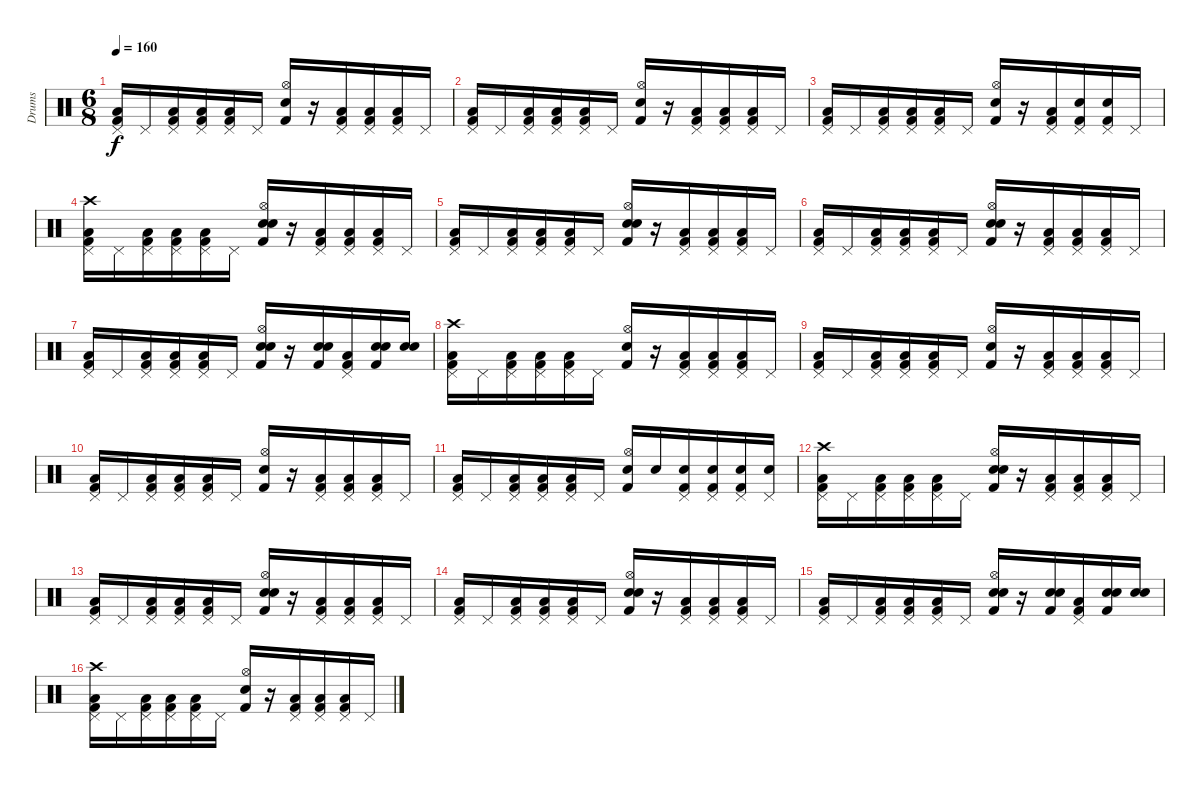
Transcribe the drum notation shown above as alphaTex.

\track ("Drums" "Drums") {instrument percussion}
\staff {score}
\articulation defaults
\ts (6 8)
\tempo 160
\clef neutral
\ks c
("Pedal Hi-Hat (hit)" "Low Floor Tom (hit)" "Kick (hit) 2").16{dy f} "Pedal Hi-Hat (hit)".16 ("Pedal Hi-Hat (hit)" "Low Floor Tom (hit)" "Kick (hit) 2").16 ("Pedal Hi-Hat (hit)" "Low Floor Tom (hit)" "Kick (hit) 2").16 ("Pedal Hi-Hat (hit)" "Low Floor Tom (hit)" "Kick (hit) 2").16 "Pedal Hi-Hat (hit)".16 ("Hi-Hat (open)" "Snare (hit) 2" "Kick (hit) 2").16 r.16 ("Pedal Hi-Hat (hit)" "Low Floor Tom (hit)" "Kick (hit) 2").16 ("Pedal Hi-Hat (hit)" "Low Floor Tom (hit)" "Kick (hit) 2").16 ("Pedal Hi-Hat (hit)" "Low Floor Tom (hit)" "Kick (hit) 2").16 "Pedal Hi-Hat (hit)".16 |
("Pedal Hi-Hat (hit)" "Low Floor Tom (hit)" "Kick (hit) 2").16 "Pedal Hi-Hat (hit)".16 ("Pedal Hi-Hat (hit)" "Low Floor Tom (hit)" "Kick (hit) 2").16 ("Pedal Hi-Hat (hit)" "Low Floor Tom (hit)" "Kick (hit) 2").16 ("Pedal Hi-Hat (hit)" "Low Floor Tom (hit)" "Kick (hit) 2").16 "Pedal Hi-Hat (hit)".16 ("Hi-Hat (open)" "Snare (hit) 2" "Kick (hit) 2").16 r.16 ("Pedal Hi-Hat (hit)" "Low Floor Tom (hit)" "Kick (hit) 2").16 ("Pedal Hi-Hat (hit)" "Low Floor Tom (hit)" "Kick (hit) 2").16 ("Pedal Hi-Hat (hit)" "Low Floor Tom (hit)" "Kick (hit) 2").16 "Pedal Hi-Hat (hit)".16 |
("Pedal Hi-Hat (hit)" "Low Floor Tom (hit)" "Kick (hit) 2").16 "Pedal Hi-Hat (hit)".16 ("Pedal Hi-Hat (hit)" "Low Floor Tom (hit)" "Kick (hit) 2").16 ("Pedal Hi-Hat (hit)" "Low Floor Tom (hit)" "Kick (hit) 2").16 ("Pedal Hi-Hat (hit)" "Low Floor Tom (hit)" "Kick (hit) 2").16 "Pedal Hi-Hat (hit)".16 ("Hi-Hat (open)" "Snare (hit) 2" "Kick (hit) 2").16 r.16 ("Pedal Hi-Hat (hit)" "Low Floor Tom (hit)" "Kick (hit) 2").16 ("Pedal Hi-Hat (hit)" "Electric Snare (hit)" "Kick (hit) 2").16 ("Pedal Hi-Hat (hit)" "Electric Snare (hit)" "Kick (hit) 2").16 "Pedal Hi-Hat (hit)".16 |
("Crash high (hit)" "Pedal Hi-Hat (hit)" "Low Floor Tom (hit)" "Kick (hit) 2").16 "Pedal Hi-Hat (hit)".16 ("Pedal Hi-Hat (hit)" "Low Floor Tom (hit)" "Kick (hit) 2").16 ("Pedal Hi-Hat (hit)" "Low Floor Tom (hit)" "Kick (hit) 2").16 ("Pedal Hi-Hat (hit)" "Low Floor Tom (hit)" "Kick (hit) 2").16 "Pedal Hi-Hat (hit)".16 ("Hi-Hat (open)" "Electric Snare (hit)" "Electric Snare (hit)" "Kick (hit) 2").16 r.16 ("Pedal Hi-Hat (hit)" "Low Floor Tom (hit)" "Kick (hit) 2").16 ("Pedal Hi-Hat (hit)" "Low Floor Tom (hit)" "Kick (hit) 2").16 ("Pedal Hi-Hat (hit)" "Low Floor Tom (hit)" "Kick (hit) 2").16 "Pedal Hi-Hat (hit)".16 |
("Pedal Hi-Hat (hit)" "Low Floor Tom (hit)" "Kick (hit) 2").16 "Pedal Hi-Hat (hit)".16 ("Pedal Hi-Hat (hit)" "Low Floor Tom (hit)" "Kick (hit) 2").16 ("Pedal Hi-Hat (hit)" "Low Floor Tom (hit)" "Kick (hit) 2").16 ("Pedal Hi-Hat (hit)" "Low Floor Tom (hit)" "Kick (hit) 2").16 "Pedal Hi-Hat (hit)".16 ("Hi-Hat (open)" "Electric Snare (hit)" "Electric Snare (hit)" "Kick (hit) 2").16 r.16 ("Pedal Hi-Hat (hit)" "Low Floor Tom (hit)" "Kick (hit) 2").16 ("Pedal Hi-Hat (hit)" "Low Floor Tom (hit)" "Kick (hit) 2").16 ("Pedal Hi-Hat (hit)" "Low Floor Tom (hit)" "Kick (hit) 2").16 "Pedal Hi-Hat (hit)".16 |
("Pedal Hi-Hat (hit)" "Low Floor Tom (hit)" "Kick (hit) 2").16 "Pedal Hi-Hat (hit)".16 ("Pedal Hi-Hat (hit)" "Low Floor Tom (hit)" "Kick (hit) 2").16 ("Pedal Hi-Hat (hit)" "Low Floor Tom (hit)" "Kick (hit) 2").16 ("Pedal Hi-Hat (hit)" "Low Floor Tom (hit)" "Kick (hit) 2").16 "Pedal Hi-Hat (hit)".16 ("Hi-Hat (open)" "Electric Snare (hit)" "Electric Snare (hit)" "Kick (hit) 2").16 r.16 ("Pedal Hi-Hat (hit)" "Low Floor Tom (hit)" "Kick (hit) 2").16 ("Pedal Hi-Hat (hit)" "Low Floor Tom (hit)" "Kick (hit) 2").16 ("Pedal Hi-Hat (hit)" "Low Floor Tom (hit)" "Kick (hit) 2").16 "Pedal Hi-Hat (hit)".16 |
("Pedal Hi-Hat (hit)" "Low Floor Tom (hit)" "Kick (hit) 2").16 "Pedal Hi-Hat (hit)".16 ("Pedal Hi-Hat (hit)" "Low Floor Tom (hit)" "Kick (hit) 2").16 ("Pedal Hi-Hat (hit)" "Low Floor Tom (hit)" "Kick (hit) 2").16 ("Pedal Hi-Hat (hit)" "Low Floor Tom (hit)" "Kick (hit) 2").16 "Pedal Hi-Hat (hit)".16 ("Hi-Hat (open)" "Electric Snare (hit)" "Electric Snare (hit)" "Kick (hit) 2").16 r.16 ("Electric Snare (hit)" "Electric Snare (hit)" "Kick (hit) 2").16 ("Pedal Hi-Hat (hit)" "Low Floor Tom (hit)" "Kick (hit) 2").16 ("Electric Snare (hit)" "Electric Snare (hit)" "Kick (hit) 2").16 ("Electric Snare (hit)" "Electric Snare (hit)").16 |
("Crash high (hit)" "Pedal Hi-Hat (hit)" "Low Floor Tom (hit)" "Kick (hit) 2").16 "Pedal Hi-Hat (hit)".16 ("Pedal Hi-Hat (hit)" "Low Floor Tom (hit)" "Kick (hit) 2").16 ("Pedal Hi-Hat (hit)" "Low Floor Tom (hit)" "Kick (hit) 2").16 ("Pedal Hi-Hat (hit)" "Low Floor Tom (hit)" "Kick (hit) 2").16 "Pedal Hi-Hat (hit)".16 ("Hi-Hat (open)" "Snare (hit) 2" "Kick (hit) 2").16 r.16 ("Pedal Hi-Hat (hit)" "Low Floor Tom (hit)" "Kick (hit) 2").16 ("Pedal Hi-Hat (hit)" "Low Floor Tom (hit)" "Kick (hit) 2").16 ("Pedal Hi-Hat (hit)" "Low Floor Tom (hit)" "Kick (hit) 2").16 "Pedal Hi-Hat (hit)".16 |
("Pedal Hi-Hat (hit)" "Low Floor Tom (hit)" "Kick (hit) 2").16 "Pedal Hi-Hat (hit)".16 ("Pedal Hi-Hat (hit)" "Low Floor Tom (hit)" "Kick (hit) 2").16 ("Pedal Hi-Hat (hit)" "Low Floor Tom (hit)" "Kick (hit) 2").16 ("Pedal Hi-Hat (hit)" "Low Floor Tom (hit)" "Kick (hit) 2").16 "Pedal Hi-Hat (hit)".16 ("Hi-Hat (open)" "Snare (hit) 2" "Kick (hit) 2").16 r.16 ("Pedal Hi-Hat (hit)" "Low Floor Tom (hit)" "Kick (hit) 2").16 ("Pedal Hi-Hat (hit)" "Low Floor Tom (hit)" "Kick (hit) 2").16 ("Pedal Hi-Hat (hit)" "Low Floor Tom (hit)" "Kick (hit) 2").16 "Pedal Hi-Hat (hit)".16 |
("Pedal Hi-Hat (hit)" "Low Floor Tom (hit)" "Kick (hit) 2").16 "Pedal Hi-Hat (hit)".16 ("Pedal Hi-Hat (hit)" "Low Floor Tom (hit)" "Kick (hit) 2").16 ("Pedal Hi-Hat (hit)" "Low Floor Tom (hit)" "Kick (hit) 2").16 ("Pedal Hi-Hat (hit)" "Low Floor Tom (hit)" "Kick (hit) 2").16 "Pedal Hi-Hat (hit)".16 ("Hi-Hat (open)" "Snare (hit) 2" "Kick (hit) 2").16 r.16 ("Pedal Hi-Hat (hit)" "Low Floor Tom (hit)" "Kick (hit) 2").16 ("Pedal Hi-Hat (hit)" "Low Floor Tom (hit)" "Kick (hit) 2").16 ("Pedal Hi-Hat (hit)" "Low Floor Tom (hit)" "Kick (hit) 2").16 "Pedal Hi-Hat (hit)".16 |
("Pedal Hi-Hat (hit)" "Low Floor Tom (hit)" "Kick (hit) 2").16 "Pedal Hi-Hat (hit)".16 ("Pedal Hi-Hat (hit)" "Low Floor Tom (hit)" "Kick (hit) 2").16 ("Pedal Hi-Hat (hit)" "Low Floor Tom (hit)" "Kick (hit) 2").16 ("Pedal Hi-Hat (hit)" "Low Floor Tom (hit)" "Kick (hit) 2").16 "Pedal Hi-Hat (hit)".16 ("Hi-Hat (open)" "Electric Snare (hit)" "Kick (hit) 2").16 "Electric Snare (hit)".16 ("Pedal Hi-Hat (hit)" "Electric Snare (hit)" "Kick (hit) 2").16 ("Pedal Hi-Hat (hit)" "Electric Snare (hit)" "Kick (hit) 2").16 ("Pedal Hi-Hat (hit)" "Electric Snare (hit)" "Kick (hit) 2").16 ("Pedal Hi-Hat (hit)" "Electric Snare (hit)").16 |
("Crash high (hit)" "Pedal Hi-Hat (hit)" "Low Floor Tom (hit)" "Kick (hit) 2").16 "Pedal Hi-Hat (hit)".16 ("Pedal Hi-Hat (hit)" "Low Floor Tom (hit)" "Kick (hit) 2").16 ("Pedal Hi-Hat (hit)" "Low Floor Tom (hit)" "Kick (hit) 2").16 ("Pedal Hi-Hat (hit)" "Low Floor Tom (hit)" "Kick (hit) 2").16 "Pedal Hi-Hat (hit)".16 ("Hi-Hat (open)" "Electric Snare (hit)" "Electric Snare (hit)" "Kick (hit) 2").16 r.16 ("Pedal Hi-Hat (hit)" "Low Floor Tom (hit)" "Kick (hit) 2").16 ("Pedal Hi-Hat (hit)" "Low Floor Tom (hit)" "Kick (hit) 2").16 ("Pedal Hi-Hat (hit)" "Low Floor Tom (hit)" "Kick (hit) 2").16 "Pedal Hi-Hat (hit)".16 |
("Pedal Hi-Hat (hit)" "Low Floor Tom (hit)" "Kick (hit) 2").16 "Pedal Hi-Hat (hit)".16 ("Pedal Hi-Hat (hit)" "Low Floor Tom (hit)" "Kick (hit) 2").16 ("Pedal Hi-Hat (hit)" "Low Floor Tom (hit)" "Kick (hit) 2").16 ("Pedal Hi-Hat (hit)" "Low Floor Tom (hit)" "Kick (hit) 2").16 "Pedal Hi-Hat (hit)".16 ("Hi-Hat (open)" "Electric Snare (hit)" "Electric Snare (hit)" "Kick (hit) 2").16 r.16 ("Pedal Hi-Hat (hit)" "Low Floor Tom (hit)" "Kick (hit) 2").16 ("Pedal Hi-Hat (hit)" "Low Floor Tom (hit)" "Kick (hit) 2").16 ("Pedal Hi-Hat (hit)" "Low Floor Tom (hit)" "Kick (hit) 2").16 "Pedal Hi-Hat (hit)".16 |
("Pedal Hi-Hat (hit)" "Low Floor Tom (hit)" "Kick (hit) 2").16 "Pedal Hi-Hat (hit)".16 ("Pedal Hi-Hat (hit)" "Low Floor Tom (hit)" "Kick (hit) 2").16 ("Pedal Hi-Hat (hit)" "Low Floor Tom (hit)" "Kick (hit) 2").16 ("Pedal Hi-Hat (hit)" "Low Floor Tom (hit)" "Kick (hit) 2").16 "Pedal Hi-Hat (hit)".16 ("Hi-Hat (open)" "Electric Snare (hit)" "Electric Snare (hit)" "Kick (hit) 2").16 r.16 ("Pedal Hi-Hat (hit)" "Low Floor Tom (hit)" "Kick (hit) 2").16 ("Pedal Hi-Hat (hit)" "Low Floor Tom (hit)" "Kick (hit) 2").16 ("Pedal Hi-Hat (hit)" "Low Floor Tom (hit)" "Kick (hit) 2").16 "Pedal Hi-Hat (hit)".16 |
("Pedal Hi-Hat (hit)" "Low Floor Tom (hit)" "Kick (hit) 2").16 "Pedal Hi-Hat (hit)".16 ("Pedal Hi-Hat (hit)" "Low Floor Tom (hit)" "Kick (hit) 2").16 ("Pedal Hi-Hat (hit)" "Low Floor Tom (hit)" "Kick (hit) 2").16 ("Pedal Hi-Hat (hit)" "Low Floor Tom (hit)" "Kick (hit) 2").16 "Pedal Hi-Hat (hit)".16 ("Hi-Hat (open)" "Electric Snare (hit)" "Electric Snare (hit)" "Kick (hit) 2").16 r.16 ("Electric Snare (hit)" "Electric Snare (hit)" "Kick (hit) 2").16 ("Pedal Hi-Hat (hit)" "Low Floor Tom (hit)" "Kick (hit) 2").16 ("Electric Snare (hit)" "Electric Snare (hit)" "Kick (hit) 2").16 ("Electric Snare (hit)" "Electric Snare (hit)").16 |
("Crash high (hit)" "Pedal Hi-Hat (hit)" "Low Floor Tom (hit)" "Kick (hit) 2").16 "Pedal Hi-Hat (hit)".16 ("Pedal Hi-Hat (hit)" "Low Floor Tom (hit)" "Kick (hit) 2").16 ("Pedal Hi-Hat (hit)" "Low Floor Tom (hit)" "Kick (hit) 2").16 ("Pedal Hi-Hat (hit)" "Low Floor Tom (hit)" "Kick (hit) 2").16 "Pedal Hi-Hat (hit)".16 ("Hi-Hat (open)" "Snare (hit) 2" "Kick (hit) 2").16 r.16 ("Pedal Hi-Hat (hit)" "Low Floor Tom (hit)" "Kick (hit) 2").16 ("Pedal Hi-Hat (hit)" "Low Floor Tom (hit)" "Kick (hit) 2").16 ("Pedal Hi-Hat (hit)" "Low Floor Tom (hit)" "Kick (hit) 2").16 "Pedal Hi-Hat (hit)".16
